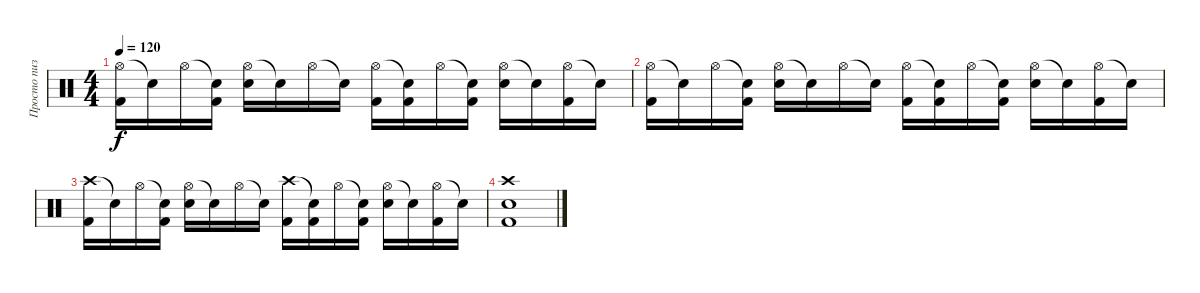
\track ("Просто пиздец какой то" "Просто пиз") {instrument percussion}
\staff {score}
\articulation defaults
\ts (4 4)
\tempo 120
\clef neutral
\ks c
("Hi-Hat (open)" "Kick (hit) 2").16{dy f} "Snare (hit)"{t}.16 "Hi-Hat (open)".16 ("Snare (hit)"{t} "Kick (hit) 2").16 ("Hi-Hat (open)" "Snare (hit) 2").16 "Snare (hit)"{t}.16 "Hi-Hat (open)".16 "Snare (hit)"{t}.16 ("Hi-Hat (open)" "Kick (hit) 2").16 ("Snare (hit)"{t} "Kick (hit) 2").16 "Hi-Hat (open)".16 ("Snare (hit)"{t} "Kick (hit) 2").16 ("Hi-Hat (open)" "Snare (hit) 2").16 "Snare (hit)"{t}.16 ("Hi-Hat (open)" "Kick (hit) 2").16 "Snare (hit)"{t}.16 |
("Hi-Hat (open)" "Kick (hit) 2").16 "Snare (hit)"{t}.16 "Hi-Hat (open)".16 ("Snare (hit)"{t} "Kick (hit) 2").16 ("Hi-Hat (open)" "Snare (hit) 2").16 "Snare (hit)"{t}.16 "Hi-Hat (open)".16 "Snare (hit)"{t}.16 ("Hi-Hat (open)" "Kick (hit) 2").16 ("Snare (hit)"{t} "Kick (hit) 2").16 "Hi-Hat (open)".16 ("Snare (hit)"{t} "Kick (hit) 2").16 ("Hi-Hat (open)" "Snare (hit) 2").16 "Snare (hit)"{t}.16 ("Hi-Hat (open)" "Kick (hit) 2").16 "Snare (hit)"{t}.16 |
("Crash high (hit)" "Kick (hit) 2").16 "Snare (hit)"{t}.16 "Hi-Hat (open)".16 ("Snare (hit)"{t} "Kick (hit) 2").16 ("Hi-Hat (open)" "Snare (hit) 2").16 "Snare (hit)"{t}.16 "Hi-Hat (open)".16 "Snare (hit)"{t}.16 ("Crash high (hit)" "Kick (hit) 2").16 ("Snare (hit)"{t} "Kick (hit) 2").16 "Hi-Hat (open)".16 ("Snare (hit)"{t} "Kick (hit) 2").16 ("Hi-Hat (open)" "Snare (hit) 2").16 "Snare (hit)"{t}.16 ("Hi-Hat (open)" "Kick (hit) 2").16 "Snare (hit)"{t}.16 |
("Crash high (hit)" "Snare (hit) 2" "Kick (hit) 2").1
